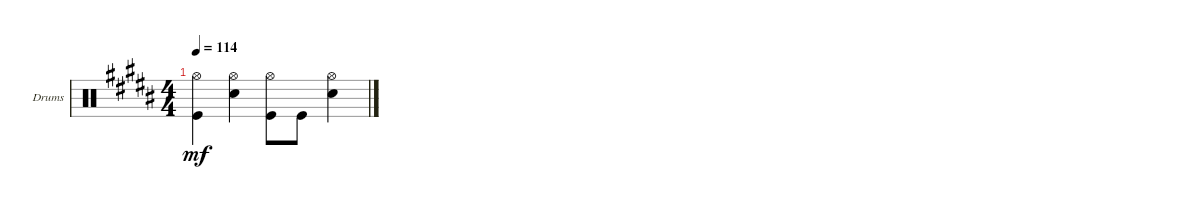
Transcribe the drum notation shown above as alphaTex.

\defaultSystemsLayout 4
\bracketExtendMode groupsimilarinstruments
\firstSystemTrackNameOrientation horizontal
\otherSystemsTrackNameOrientation horizontal
\track ("Drumkit" "Drums") {instrument percussion}
\staff {score}
\articulation defaults
\ts (4 4)
\tempo 114
\clef neutral
\ks g#minor
("Hi-Hat (open)" "Kick (hit)").4{dy mf} ("Hi-Hat (open)" "Snare (hit) 2").4 ("Hi-Hat (open)" "Kick (hit)").8 "Kick (hit)".8 ("Hi-Hat (open)" "Snare (hit) 2").4
